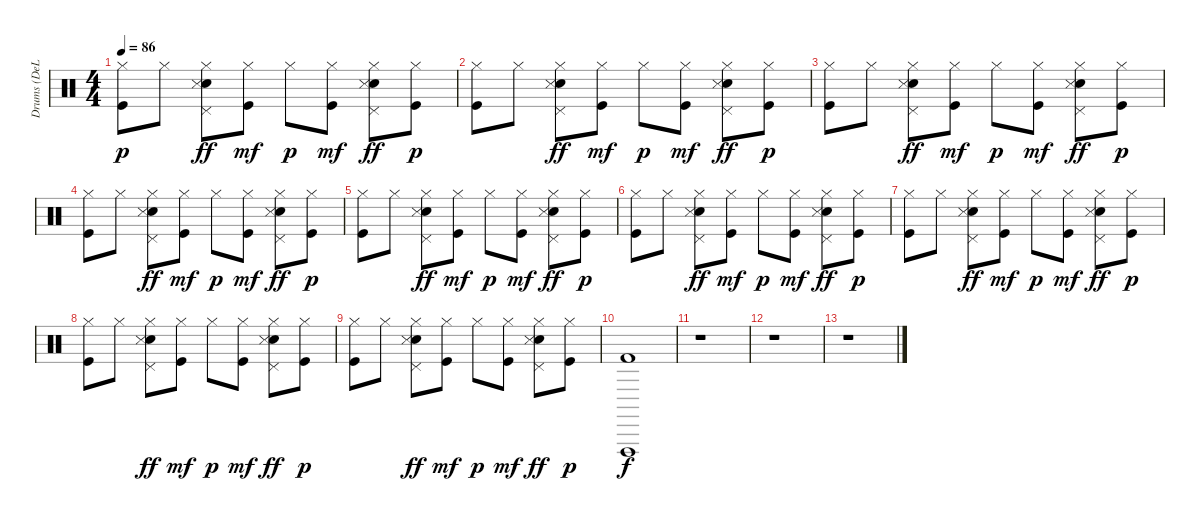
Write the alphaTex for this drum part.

\track ("Drums (DeLorenzo)" "Drums (DeL") {instrument percussion}
\staff {score}
\articulation defaults
\ts (4 4)
\tempo 86
\clef neutral
\ks c
("Hi-Hat (closed)" "Kick (hit)").8{dy p} "Hi-Hat (closed)".8 ("Hi-Hat (closed)" "Pedal Hi-Hat (hit)" "Electric Snare (hit)" "Snare (side stick) 3").8{dy ff} ("Hi-Hat (closed)" "Kick (hit)").8{dy mf} "Hi-Hat (closed)".8{dy p} ("Hi-Hat (closed)" "Kick (hit)").8{dy mf} ("Hi-Hat (closed)" "Pedal Hi-Hat (hit)" "Electric Snare (hit)" "Snare (side stick) 3").8{dy ff} ("Hi-Hat (closed)" "Kick (hit)").8{dy p} |
("Hi-Hat (closed)" "Kick (hit)").8 "Hi-Hat (closed)".8 ("Hi-Hat (closed)" "Pedal Hi-Hat (hit)" "Electric Snare (hit)" "Snare (side stick) 3").8{dy ff} ("Hi-Hat (closed)" "Kick (hit)").8{dy mf} "Hi-Hat (closed)".8{dy p} ("Hi-Hat (closed)" "Kick (hit)").8{dy mf} ("Hi-Hat (closed)" "Pedal Hi-Hat (hit)" "Electric Snare (hit)" "Snare (side stick) 3").8{dy ff} ("Hi-Hat (closed)" "Kick (hit)").8{dy p} |
("Hi-Hat (closed)" "Kick (hit)").8 "Hi-Hat (closed)".8 ("Hi-Hat (closed)" "Pedal Hi-Hat (hit)" "Electric Snare (hit)" "Snare (side stick) 3").8{dy ff} ("Hi-Hat (closed)" "Kick (hit)").8{dy mf} "Hi-Hat (closed)".8{dy p} ("Hi-Hat (closed)" "Kick (hit)").8{dy mf} ("Hi-Hat (closed)" "Pedal Hi-Hat (hit)" "Electric Snare (hit)" "Snare (side stick) 3").8{dy ff} ("Hi-Hat (closed)" "Kick (hit)").8{dy p} |
("Hi-Hat (closed)" "Kick (hit)").8 "Hi-Hat (closed)".8 ("Hi-Hat (closed)" "Pedal Hi-Hat (hit)" "Electric Snare (hit)" "Snare (side stick) 3").8{dy ff} ("Hi-Hat (closed)" "Kick (hit)").8{dy mf} "Hi-Hat (closed)".8{dy p} ("Hi-Hat (closed)" "Kick (hit)").8{dy mf} ("Hi-Hat (closed)" "Pedal Hi-Hat (hit)" "Electric Snare (hit)" "Snare (side stick) 3").8{dy ff} ("Hi-Hat (closed)" "Kick (hit)").8{dy p} |
("Hi-Hat (closed)" "Kick (hit)").8 "Hi-Hat (closed)".8 ("Hi-Hat (closed)" "Pedal Hi-Hat (hit)" "Electric Snare (hit)" "Snare (side stick) 3").8{dy ff} ("Hi-Hat (closed)" "Kick (hit)").8{dy mf} "Hi-Hat (closed)".8{dy p} ("Hi-Hat (closed)" "Kick (hit)").8{dy mf} ("Hi-Hat (closed)" "Pedal Hi-Hat (hit)" "Electric Snare (hit)" "Snare (side stick) 3").8{dy ff} ("Hi-Hat (closed)" "Kick (hit)").8{dy p} |
("Hi-Hat (closed)" "Kick (hit)").8 "Hi-Hat (closed)".8 ("Hi-Hat (closed)" "Pedal Hi-Hat (hit)" "Electric Snare (hit)" "Snare (side stick) 3").8{dy ff} ("Hi-Hat (closed)" "Kick (hit)").8{dy mf} "Hi-Hat (closed)".8{dy p} ("Hi-Hat (closed)" "Kick (hit)").8{dy mf} ("Hi-Hat (closed)" "Pedal Hi-Hat (hit)" "Electric Snare (hit)" "Snare (side stick) 3").8{dy ff} ("Hi-Hat (closed)" "Kick (hit)").8{dy p} |
("Hi-Hat (closed)" "Kick (hit)").8 "Hi-Hat (closed)".8 ("Hi-Hat (closed)" "Pedal Hi-Hat (hit)" "Electric Snare (hit)" "Snare (side stick) 3").8{dy ff} ("Hi-Hat (closed)" "Kick (hit)").8{dy mf} "Hi-Hat (closed)".8{dy p} ("Hi-Hat (closed)" "Kick (hit)").8{dy mf} ("Hi-Hat (closed)" "Pedal Hi-Hat (hit)" "Electric Snare (hit)" "Snare (side stick) 3").8{dy ff} ("Hi-Hat (closed)" "Kick (hit)").8{dy p} |
("Hi-Hat (closed)" "Kick (hit)").8 "Hi-Hat (closed)".8 ("Hi-Hat (closed)" "Pedal Hi-Hat (hit)" "Electric Snare (hit)" "Snare (side stick) 3").8{dy ff} ("Hi-Hat (closed)" "Kick (hit)").8{dy mf} "Hi-Hat (closed)".8{dy p} ("Hi-Hat (closed)" "Kick (hit)").8{dy mf} ("Hi-Hat (closed)" "Pedal Hi-Hat (hit)" "Electric Snare (hit)" "Snare (side stick) 3").8{dy ff} ("Hi-Hat (closed)" "Kick (hit)").8{dy p} |
("Hi-Hat (closed)" "Kick (hit)").8 "Hi-Hat (closed)".8 ("Hi-Hat (closed)" "Pedal Hi-Hat (hit)" "Electric Snare (hit)" "Snare (side stick) 3").8{dy ff} ("Hi-Hat (closed)" "Kick (hit)").8{dy mf} "Hi-Hat (closed)".8{dy p} ("Hi-Hat (closed)" "Kick (hit)").8{dy mf} ("Hi-Hat (closed)" "Pedal Hi-Hat (hit)" "Electric Snare (hit)" "Snare (side stick) 3").8{dy ff} ("Hi-Hat (closed)" "Kick (hit)").8{dy p} |
("Vibraslap (hit)" "Kick (hit) 2").1{dy f} |
r.1 |
r.1 |
r.1
